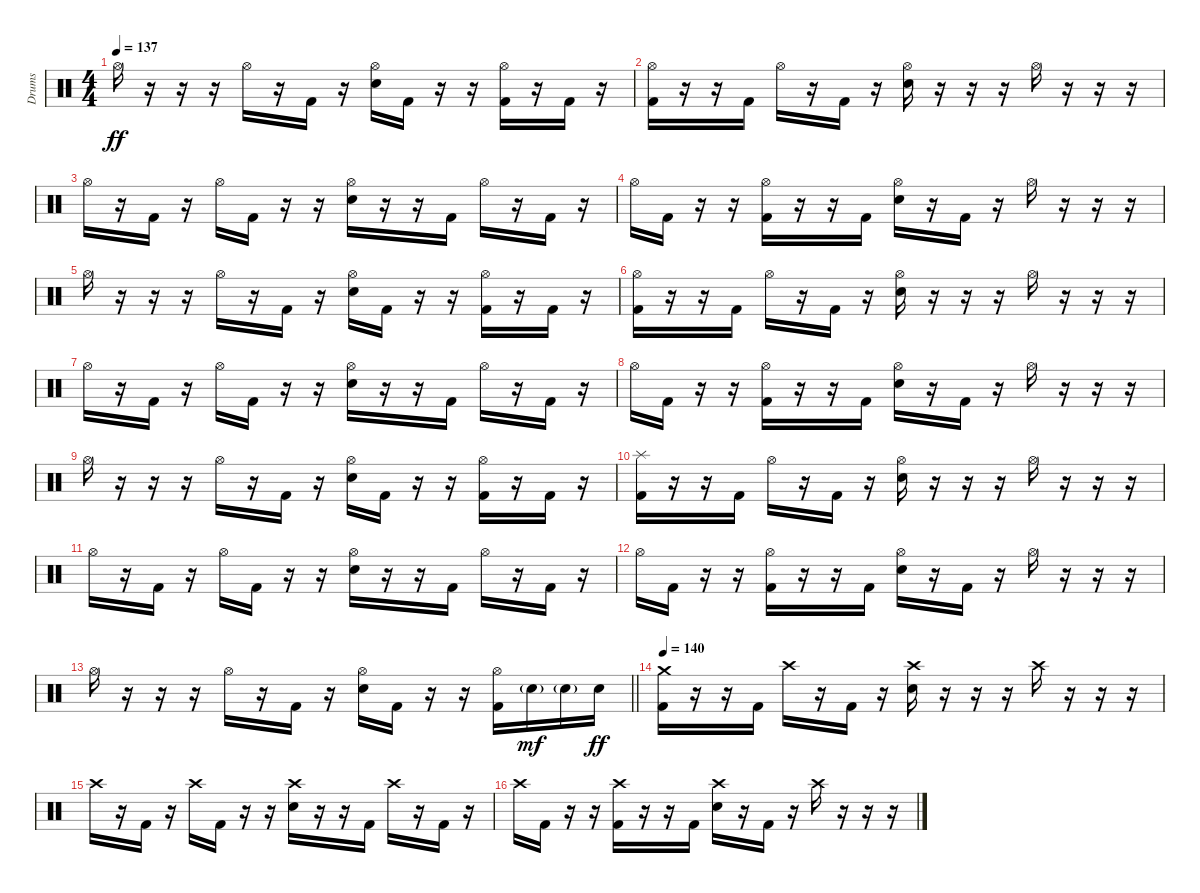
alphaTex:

\track ("Drums" "Drums") {instrument percussion}
\staff {score}
\articulation defaults
\ts (4 4)
\tempo 137
\clef neutral
\ks c "Hi-Hat (open)".16{dy ff}
r.16 r.16 r.16 "Hi-Hat (open)".16 r.16 "Kick (hit) 2".16 r.16 ("Hi-Hat (open)" "Electric Snare (hit)").16 "Kick (hit) 2".16 r.16 r.16 ("Hi-Hat (open)" "Kick (hit) 2").16 r.16 "Kick (hit) 2".16 r.16 |
("Hi-Hat (open)" "Kick (hit) 2").16 r.16 r.16 "Kick (hit) 2".16 "Hi-Hat (open)".16 r.16 "Kick (hit) 2".16 r.16 ("Hi-Hat (open)" "Electric Snare (hit)").16 r.16 r.16 r.16 "Hi-Hat (open)".16 r.16 r.16 r.16 |
"Hi-Hat (open)".16 r.16 "Kick (hit) 2".16 r.16 "Hi-Hat (open)".16 "Kick (hit) 2".16 r.16 r.16 ("Hi-Hat (open)" "Electric Snare (hit)").16 r.16 r.16 "Kick (hit) 2".16 "Hi-Hat (open)".16 r.16 "Kick (hit) 2".16 r.16 |
"Hi-Hat (open)".16 "Kick (hit) 2".16 r.16 r.16 ("Hi-Hat (open)" "Kick (hit) 2").16 r.16 r.16 "Kick (hit) 2".16 ("Hi-Hat (open)" "Electric Snare (hit)").16 r.16 "Kick (hit) 2".16 r.16 "Hi-Hat (open)".16 r.16 r.16 r.16 |
"Hi-Hat (open)".16 r.16 r.16 r.16 "Hi-Hat (open)".16 r.16 "Kick (hit) 2".16 r.16 ("Hi-Hat (open)" "Electric Snare (hit)").16 "Kick (hit) 2".16 r.16 r.16 ("Hi-Hat (open)" "Kick (hit) 2").16 r.16 "Kick (hit) 2".16 r.16 |
("Hi-Hat (open)" "Kick (hit) 2").16 r.16 r.16 "Kick (hit) 2".16 "Hi-Hat (open)".16 r.16 "Kick (hit) 2".16 r.16 ("Hi-Hat (open)" "Electric Snare (hit)").16 r.16 r.16 r.16 "Hi-Hat (open)".16 r.16 r.16 r.16 |
"Hi-Hat (open)".16 r.16 "Kick (hit) 2".16 r.16 "Hi-Hat (open)".16 "Kick (hit) 2".16 r.16 r.16 ("Hi-Hat (open)" "Electric Snare (hit)").16 r.16 r.16 "Kick (hit) 2".16 "Hi-Hat (open)".16 r.16 "Kick (hit) 2".16 r.16 |
"Hi-Hat (open)".16 "Kick (hit) 2".16 r.16 r.16 ("Hi-Hat (open)" "Kick (hit) 2").16 r.16 r.16 "Kick (hit) 2".16 ("Hi-Hat (open)" "Electric Snare (hit)").16 r.16 "Kick (hit) 2".16 r.16 "Hi-Hat (open)".16 r.16 r.16 r.16 |
"Hi-Hat (open)".16 r.16 r.16 r.16 "Hi-Hat (open)".16 r.16 "Kick (hit) 2".16 r.16 ("Hi-Hat (open)" "Electric Snare (hit)").16 "Kick (hit) 2".16 r.16 r.16 ("Hi-Hat (open)" "Kick (hit) 2").16 r.16 "Kick (hit) 2".16 r.16 |
("Splash (hit)" "Kick (hit) 2").16 r.16 r.16 "Kick (hit) 2".16 "Hi-Hat (open)".16 r.16 "Kick (hit) 2".16 r.16 ("Hi-Hat (open)" "Electric Snare (hit)").16 r.16 r.16 r.16 "Hi-Hat (open)".16 r.16 r.16 r.16 |
"Hi-Hat (open)".16 r.16 "Kick (hit) 2".16 r.16 "Hi-Hat (open)".16 "Kick (hit) 2".16 r.16 r.16 ("Hi-Hat (open)" "Electric Snare (hit)").16 r.16 r.16 "Kick (hit) 2".16 "Hi-Hat (open)".16 r.16 "Kick (hit) 2".16 r.16 |
"Hi-Hat (open)".16 "Kick (hit) 2".16 r.16 r.16 ("Hi-Hat (open)" "Kick (hit) 2").16 r.16 r.16 "Kick (hit) 2".16 ("Hi-Hat (open)" "Electric Snare (hit)").16 r.16 "Kick (hit) 2".16 r.16 "Hi-Hat (open)".16 r.16 r.16 r.16 |
\barLineRight lightlight "Hi-Hat (open)".16
r.16 r.16 r.16 "Hi-Hat (open)".16 r.16 "Kick (hit) 2".16 r.16 ("Hi-Hat (open)" "Electric Snare (hit)").16 "Kick (hit) 2".16 r.16 r.16 ("Hi-Hat (open)" "Kick (hit) 2").16 "Electric Snare (hit)"{g}.16{dy mf} "Electric Snare (hit)"{g}.16 "Electric Snare (hit)".16{dy ff} |
\section ("" "")
\tempo 140
("Crash medium (hit)" "Kick (hit) 2").16 r.16 r.16 "Kick (hit) 2".16 "Crash high (hit)".16 r.16 "Kick (hit) 2".16 r.16 ("Crash high (hit)" "Electric Snare (hit)").16 r.16 r.16 r.16 "Crash high (hit)".16 r.16 r.16 r.16 |
"Crash high (hit)".16 r.16 "Kick (hit) 2".16 r.16 "Crash high (hit)".16 "Kick (hit) 2".16 r.16 r.16 ("Crash high (hit)" "Electric Snare (hit)").16 r.16 r.16 "Kick (hit) 2".16 "Crash high (hit)".16 r.16 "Kick (hit) 2".16 r.16 |
"Crash high (hit)".16 "Kick (hit) 2".16 r.16 r.16 ("Crash high (hit)" "Kick (hit) 2").16 r.16 r.16 "Kick (hit) 2".16 ("Crash high (hit)" "Electric Snare (hit)").16 r.16 "Kick (hit) 2".16 r.16 "Crash high (hit)".16 r.16 r.16 r.16
